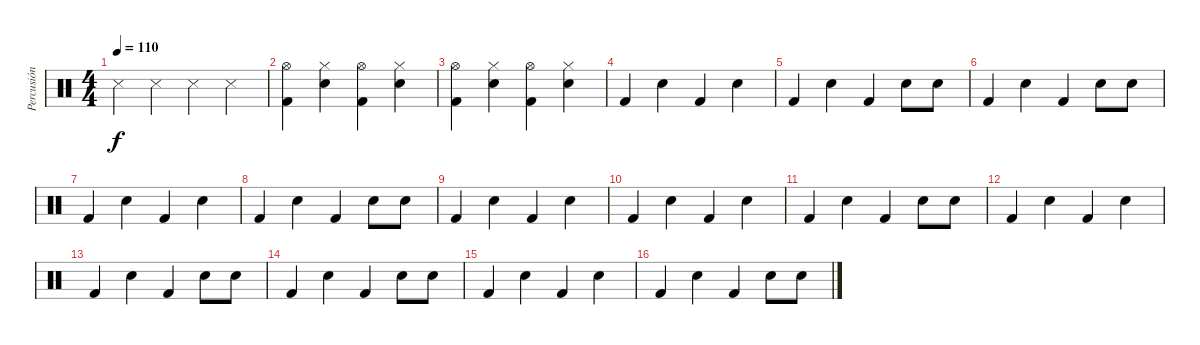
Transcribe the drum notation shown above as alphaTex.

\track ("Percusión" "Percusión") {instrument percussion}
\staff {score}
\articulation defaults
\ts (4 4)
\tempo 110
\clef neutral
\ks c "Snare (side stick) 3".4{dy f} "Snare (side stick) 3".4 "Snare (side stick) 3".4 "Snare (side stick) 3".4
|
("Kick (hit) 2" "Hi-Hat (open)").4 ("Snare (hit) 2" "Hi-Hat (closed)").4 ("Kick (hit) 2" "Hi-Hat (open)").4 ("Snare (hit) 2" "Hi-Hat (closed)").4 |
("Kick (hit) 2" "Hi-Hat (open)").4 ("Snare (hit) 2" "Hi-Hat (closed)").4 ("Kick (hit) 2" "Hi-Hat (open)").4 ("Snare (hit) 2" "Hi-Hat (closed)").4 |
"Kick (hit) 2".4 "Snare (hit) 2".4 "Kick (hit) 2".4 "Snare (hit) 2".4 |
"Kick (hit) 2".4 "Snare (hit) 2".4 "Kick (hit) 2".4 "Snare (hit) 2".8 "Snare (hit) 2".8 |
"Kick (hit) 2".4 "Snare (hit) 2".4 "Kick (hit) 2".4 "Snare (hit) 2".8 "Snare (hit) 2".8 |
"Kick (hit) 2".4 "Snare (hit) 2".4 "Kick (hit) 2".4 "Snare (hit) 2".4 |
"Kick (hit) 2".4 "Snare (hit) 2".4 "Kick (hit) 2".4 "Snare (hit) 2".8 "Snare (hit) 2".8 |
"Kick (hit) 2".4 "Snare (hit) 2".4 "Kick (hit) 2".4 "Snare (hit) 2".4 |
"Kick (hit) 2".4 "Snare (hit) 2".4 "Kick (hit) 2".4 "Snare (hit) 2".4 |
"Kick (hit) 2".4 "Snare (hit) 2".4 "Kick (hit) 2".4 "Snare (hit) 2".8 "Snare (hit) 2".8 |
"Kick (hit) 2".4 "Snare (hit) 2".4 "Kick (hit) 2".4 "Snare (hit) 2".4 |
"Kick (hit) 2".4 "Snare (hit) 2".4 "Kick (hit) 2".4 "Snare (hit) 2".8 "Snare (hit) 2".8 |
"Kick (hit) 2".4 "Snare (hit) 2".4 "Kick (hit) 2".4 "Snare (hit) 2".8 "Snare (hit) 2".8 |
"Kick (hit) 2".4 "Snare (hit) 2".4 "Kick (hit) 2".4 "Snare (hit) 2".4 |
"Kick (hit) 2".4 "Snare (hit) 2".4 "Kick (hit) 2".4 "Snare (hit) 2".8 "Snare (hit) 2".8
